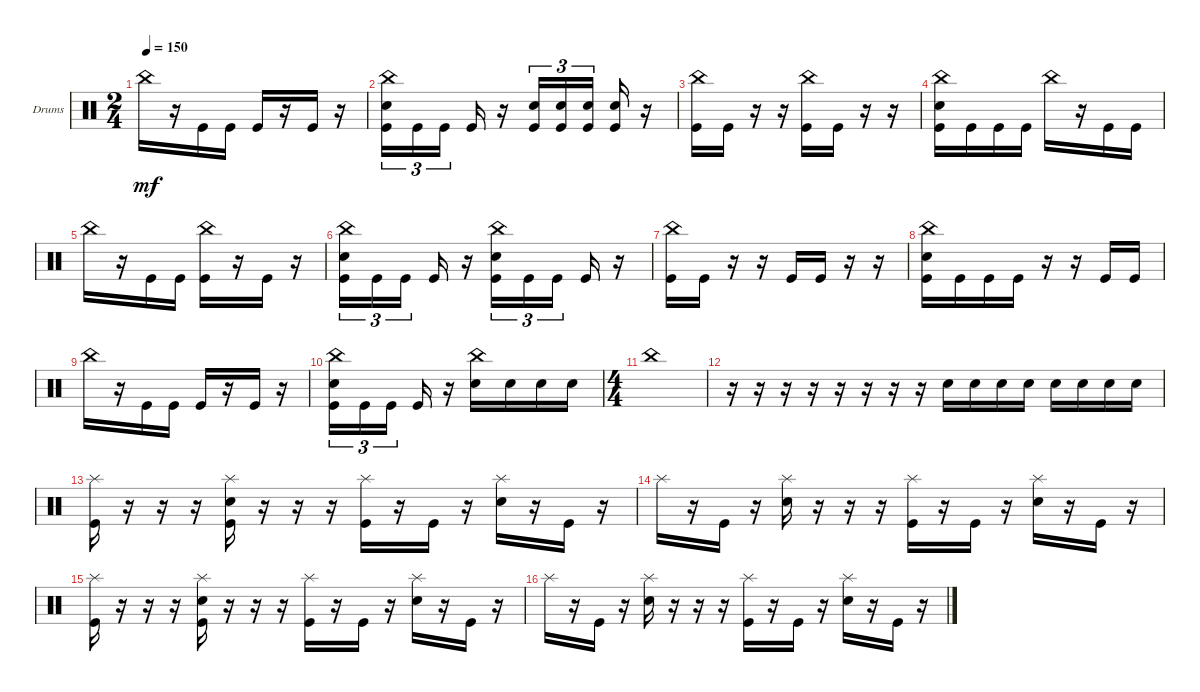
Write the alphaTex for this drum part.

\bracketExtendMode groupsimilarinstruments
\firstSystemTrackNameOrientation horizontal
\otherSystemsTrackNameOrientation horizontal
\track ("Drumkit" "Drums") {instrument percussion}
\staff {score}
\articulation defaults
\ts (2 4)
\tempo 150
\clef neutral
\ks c "China (hit)".16{dy mf}
r.16 "Kick (hit)".16 "Kick (hit)".16 "Kick (hit)".16 r.16 "Kick (hit)".16 r.16 |
("Kick (hit)" "China (hit)" "Snare (hit) 2").16{tu (3 2)} "Kick (hit)".16{tu (3 2)} "Kick (hit)".16{tu (3 2)} "Kick (hit)".16 r.16 ("Kick (hit)" "Snare (hit) 2").16{tu (3 2)} ("Kick (hit)" "Snare (hit) 2").16{tu (3 2)} ("Kick (hit)" "Snare (hit) 2").16{tu (3 2)} ("Kick (hit)" "Snare (hit) 2").16 r.16 |
("Kick (hit)" "China (hit)").16 "Kick (hit)".16 r.16 r.16 ("Kick (hit)" "China (hit)").16 "Kick (hit)".16 r.16 r.16 |
("Kick (hit)" "China (hit)" "Snare (hit) 2").16 "Kick (hit)".16 "Kick (hit)".16 "Kick (hit)".16 "China (hit)".16 r.16 "Kick (hit)".16 "Kick (hit)".16 |
"China (hit)".16 r.16 "Kick (hit)".16 "Kick (hit)".16 ("Kick (hit)" "China (hit)").16 r.16 "Kick (hit)".16 r.16 |
("Kick (hit)" "China (hit)" "Snare (hit) 2").16{tu (3 2)} "Kick (hit)".16{tu (3 2)} "Kick (hit)".16{tu (3 2)} "Kick (hit)".16 r.16 ("Kick (hit)" "Snare (hit) 2" "China (hit)").16{tu (3 2)} "Kick (hit)".16{tu (3 2)} "Kick (hit)".16{tu (3 2)} "Kick (hit)".16 r.16 |
("Kick (hit)" "China (hit)").16 "Kick (hit)".16 r.16 r.16 "Kick (hit)".16 "Kick (hit)".16 r.16 r.16 |
("Kick (hit)" "China (hit)" "Snare (hit) 2").16 "Kick (hit)".16 "Kick (hit)".16 "Kick (hit)".16 r.16 r.16 "Kick (hit)".16 "Kick (hit)".16 |
"China (hit)".16 r.16 "Kick (hit)".16 "Kick (hit)".16 "Kick (hit)".16 r.16 "Kick (hit)".16 r.16 |
("Kick (hit)" "China (hit)" "Snare (hit) 2").16{tu (3 2)} "Kick (hit)".16{tu (3 2)} "Kick (hit)".16{tu (3 2)} "Kick (hit)".16 r.16 ("China (hit)" "Snare (hit) 2").16 "Snare (hit) 2".16 "Snare (hit) 2".16 "Snare (hit) 2".16 |
\ts (4 4)
"China (hit)".1 |
r.16 r.16 r.16 r.16 r.16 r.16 r.16 r.16 "Snare (hit) 2".16 "Snare (hit) 2".16 "Snare (hit) 2".16 "Snare (hit) 2".16 "Snare (hit) 2".16 "Snare (hit) 2".16 "Snare (hit) 2".16 "Snare (hit) 2".16 |
("Splash (hit)" "Kick (hit)").16 r.16 r.16 r.16 ("Splash (hit)" "Snare (hit) 2" "Kick (hit)").16 r.16 r.16 r.16 ("Splash (hit)" "Kick (hit)").16 r.16 "Kick (hit)".16 r.16 ("Splash (hit)" "Snare (hit) 2").16 r.16 "Kick (hit)".16 r.16 |
"Splash (hit)".16 r.16 "Kick (hit)".16 r.16 ("Splash (hit)" "Snare (hit) 2").16 r.16 r.16 r.16 ("Splash (hit)" "Kick (hit)").16 r.16 "Kick (hit)".16 r.16 ("Snare (hit) 2" "Splash (hit)").16 r.16 "Kick (hit)".16 r.16 |
("Splash (hit)" "Kick (hit)").16 r.16 r.16 r.16 ("Splash (hit)" "Snare (hit) 2" "Kick (hit)").16 r.16 r.16 r.16 ("Splash (hit)" "Kick (hit)").16 r.16 "Kick (hit)".16 r.16 ("Splash (hit)" "Snare (hit) 2").16 r.16 "Kick (hit)".16 r.16 |
"Splash (hit)".16 r.16 "Kick (hit)".16 r.16 ("Splash (hit)" "Snare (hit) 2").16 r.16 r.16 r.16 ("Splash (hit)" "Kick (hit)").16 r.16 "Kick (hit)".16 r.16 ("Snare (hit) 2" "Splash (hit)").16 r.16 "Kick (hit)".16 r.16
